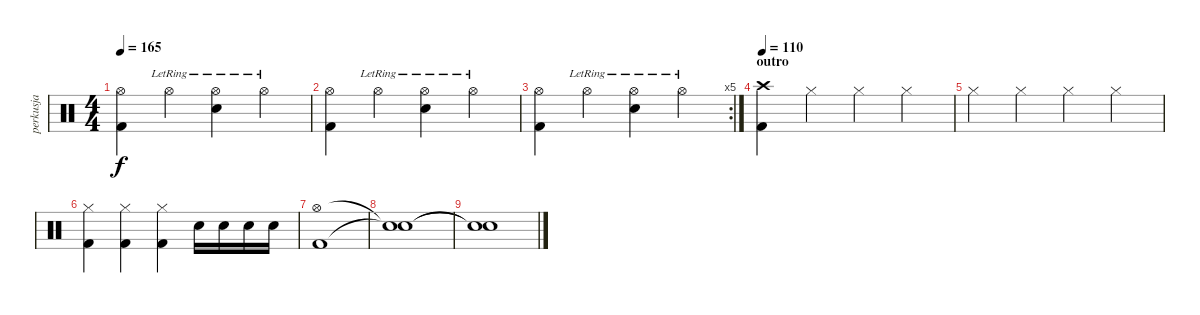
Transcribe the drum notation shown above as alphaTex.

\track ("perkusja" "perkusja") {instrument percussion}
\staff {score}
\articulation defaults
\ts (4 4)
\tempo 165
\clef neutral
\ks c
("Hi-Hat (open)" "Kick (hit) 2").4{dy f} "Hi-Hat (open)"{lr}.4 ("Hi-Hat (open)"{lr} "Electric Snare (hit)").4 "Hi-Hat (open)"{lr}.4 |
("Hi-Hat (open)" "Kick (hit) 2").4 "Hi-Hat (open)"{lr}.4 ("Hi-Hat (open)"{lr} "Electric Snare (hit)").4 "Hi-Hat (open)"{lr}.4 |
\rc 5
("Hi-Hat (open)" "Kick (hit) 2").4 "Hi-Hat (open)"{lr}.4 ("Hi-Hat (open)"{lr} "Electric Snare (hit)").4 "Hi-Hat (open)"{lr}.4 |
\section ("" "outro")
\tempo 110
("Crash high (hit)" "Kick (hit) 2").4 "Hi-Hat (closed)".4 "Hi-Hat (closed)".4 "Hi-Hat (closed)".4 |
"Hi-Hat (closed)".4 "Hi-Hat (closed)".4 "Hi-Hat (closed)".4 "Hi-Hat (closed)".4 |
("Hi-Hat (closed)" "Kick (hit) 2").4 ("Hi-Hat (closed)" "Kick (hit) 2").4 ("Hi-Hat (closed)" "Kick (hit) 2").4 "Electric Snare (hit)".16 "Electric Snare (hit)".16 "Electric Snare (hit)".16 "Electric Snare (hit)".16 |
("Hi-Hat (open)" "Kick (hit) 2").1 |
("Snare (hit)"{t} "Snare (hit)"{t}).1 |
("Snare (hit)"{t} "Snare (hit)"{t}).1
